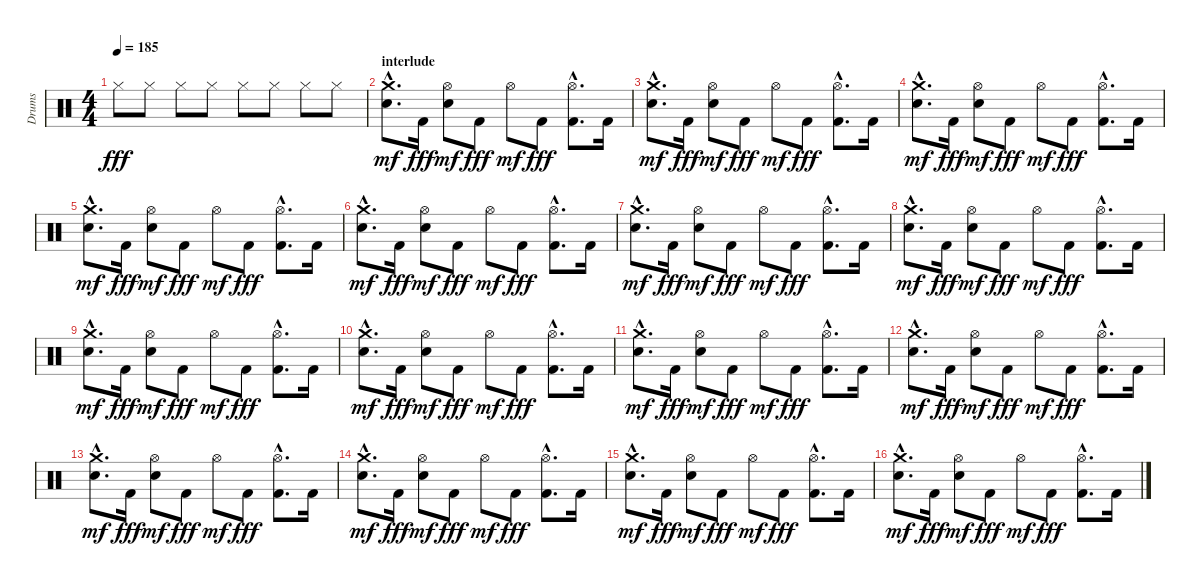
\track ("Drums" "Drums") {instrument percussion}
\staff {score}
\articulation defaults
\ts (4 4)
\tempo 185
\clef neutral
\ks c "Hi-Hat (closed)".8{dy fff} "Hi-Hat (closed)".8 "Hi-Hat (closed)".8 "Hi-Hat (closed)".8 "Hi-Hat (closed)".8 "Hi-Hat (closed)".8 "Hi-Hat (closed)".8 "Hi-Hat (closed)".8
|
\section ("" "interlude")
("Crash medium (hit)"{hac} "Electric Snare (hit)"{hac}).8{d dy mf} "Kick (hit) 2".16{dy fff} ("Hi-Hat (open)" "Electric Snare (hit)").8{dy mf} "Kick (hit) 2".8{dy fff} "Hi-Hat (open)".8{dy mf} "Kick (hit) 2".8{dy fff} ("Hi-Hat (open)"{hac} "Kick (hit) 2"{hac}).8{d} "Kick (hit) 2".16 |
("Crash medium (hit)"{hac} "Electric Snare (hit)"{hac}).8{d dy mf} "Kick (hit) 2".16{dy fff} ("Hi-Hat (open)" "Electric Snare (hit)").8{dy mf} "Kick (hit) 2".8{dy fff} "Hi-Hat (open)".8{dy mf} "Kick (hit) 2".8{dy fff} ("Hi-Hat (open)"{hac} "Kick (hit) 2"{hac}).8{d} "Kick (hit) 2".16 |
("Crash medium (hit)"{hac} "Electric Snare (hit)"{hac}).8{d dy mf} "Kick (hit) 2".16{dy fff} ("Hi-Hat (open)" "Electric Snare (hit)").8{dy mf} "Kick (hit) 2".8{dy fff} "Hi-Hat (open)".8{dy mf} "Kick (hit) 2".8{dy fff} ("Hi-Hat (open)"{hac} "Kick (hit) 2"{hac}).8{d} "Kick (hit) 2".16 |
("Crash medium (hit)"{hac} "Electric Snare (hit)"{hac}).8{d dy mf} "Kick (hit) 2".16{dy fff} ("Hi-Hat (open)" "Electric Snare (hit)").8{dy mf} "Kick (hit) 2".8{dy fff} "Hi-Hat (open)".8{dy mf} "Kick (hit) 2".8{dy fff} ("Hi-Hat (open)"{hac} "Kick (hit) 2"{hac}).8{d} "Kick (hit) 2".16 |
("Crash medium (hit)"{hac} "Electric Snare (hit)"{hac}).8{d dy mf} "Kick (hit) 2".16{dy fff} ("Hi-Hat (open)" "Electric Snare (hit)").8{dy mf} "Kick (hit) 2".8{dy fff} "Hi-Hat (open)".8{dy mf} "Kick (hit) 2".8{dy fff} ("Hi-Hat (open)"{hac} "Kick (hit) 2"{hac}).8{d} "Kick (hit) 2".16 |
("Crash medium (hit)"{hac} "Electric Snare (hit)"{hac}).8{d dy mf} "Kick (hit) 2".16{dy fff} ("Hi-Hat (open)" "Electric Snare (hit)").8{dy mf} "Kick (hit) 2".8{dy fff} "Hi-Hat (open)".8{dy mf} "Kick (hit) 2".8{dy fff} ("Hi-Hat (open)"{hac} "Kick (hit) 2"{hac}).8{d} "Kick (hit) 2".16 |
("Crash medium (hit)"{hac} "Electric Snare (hit)"{hac}).8{d dy mf} "Kick (hit) 2".16{dy fff} ("Hi-Hat (open)" "Electric Snare (hit)").8{dy mf} "Kick (hit) 2".8{dy fff} "Hi-Hat (open)".8{dy mf} "Kick (hit) 2".8{dy fff} ("Hi-Hat (open)"{hac} "Kick (hit) 2"{hac}).8{d} "Kick (hit) 2".16 |
("Crash medium (hit)"{hac} "Electric Snare (hit)"{hac}).8{d dy mf} "Kick (hit) 2".16{dy fff} ("Hi-Hat (open)" "Electric Snare (hit)").8{dy mf} "Kick (hit) 2".8{dy fff} "Hi-Hat (open)".8{dy mf} "Kick (hit) 2".8{dy fff} ("Hi-Hat (open)"{hac} "Kick (hit) 2"{hac}).8{d} "Kick (hit) 2".16 |
("Crash medium (hit)"{hac} "Electric Snare (hit)"{hac}).8{d dy mf} "Kick (hit) 2".16{dy fff} ("Hi-Hat (open)" "Electric Snare (hit)").8{dy mf} "Kick (hit) 2".8{dy fff} "Hi-Hat (open)".8{dy mf} "Kick (hit) 2".8{dy fff} ("Hi-Hat (open)"{hac} "Kick (hit) 2"{hac}).8{d} "Kick (hit) 2".16 |
("Crash medium (hit)"{hac} "Electric Snare (hit)"{hac}).8{d dy mf} "Kick (hit) 2".16{dy fff} ("Hi-Hat (open)" "Electric Snare (hit)").8{dy mf} "Kick (hit) 2".8{dy fff} "Hi-Hat (open)".8{dy mf} "Kick (hit) 2".8{dy fff} ("Hi-Hat (open)"{hac} "Kick (hit) 2"{hac}).8{d} "Kick (hit) 2".16 |
("Crash medium (hit)"{hac} "Electric Snare (hit)"{hac}).8{d dy mf} "Kick (hit) 2".16{dy fff} ("Hi-Hat (open)" "Electric Snare (hit)").8{dy mf} "Kick (hit) 2".8{dy fff} "Hi-Hat (open)".8{dy mf} "Kick (hit) 2".8{dy fff} ("Hi-Hat (open)"{hac} "Kick (hit) 2"{hac}).8{d} "Kick (hit) 2".16 |
("Crash medium (hit)"{hac} "Electric Snare (hit)"{hac}).8{d dy mf} "Kick (hit) 2".16{dy fff} ("Hi-Hat (open)" "Electric Snare (hit)").8{dy mf} "Kick (hit) 2".8{dy fff} "Hi-Hat (open)".8{dy mf} "Kick (hit) 2".8{dy fff} ("Hi-Hat (open)"{hac} "Kick (hit) 2"{hac}).8{d} "Kick (hit) 2".16 |
("Crash medium (hit)"{hac} "Electric Snare (hit)"{hac}).8{d dy mf} "Kick (hit) 2".16{dy fff} ("Hi-Hat (open)" "Electric Snare (hit)").8{dy mf} "Kick (hit) 2".8{dy fff} "Hi-Hat (open)".8{dy mf} "Kick (hit) 2".8{dy fff} ("Hi-Hat (open)"{hac} "Kick (hit) 2"{hac}).8{d} "Kick (hit) 2".16 |
("Crash medium (hit)"{hac} "Electric Snare (hit)"{hac}).8{d dy mf} "Kick (hit) 2".16{dy fff} ("Hi-Hat (open)" "Electric Snare (hit)").8{dy mf} "Kick (hit) 2".8{dy fff} "Hi-Hat (open)".8{dy mf} "Kick (hit) 2".8{dy fff} ("Hi-Hat (open)"{hac} "Kick (hit) 2"{hac}).8{d} "Kick (hit) 2".16 |
("Crash medium (hit)"{hac} "Electric Snare (hit)"{hac}).8{d dy mf} "Kick (hit) 2".16{dy fff} ("Hi-Hat (open)" "Electric Snare (hit)").8{dy mf} "Kick (hit) 2".8{dy fff} "Hi-Hat (open)".8{dy mf} "Kick (hit) 2".8{dy fff} ("Hi-Hat (open)"{hac} "Kick (hit) 2"{hac}).8{d} "Kick (hit) 2".16
